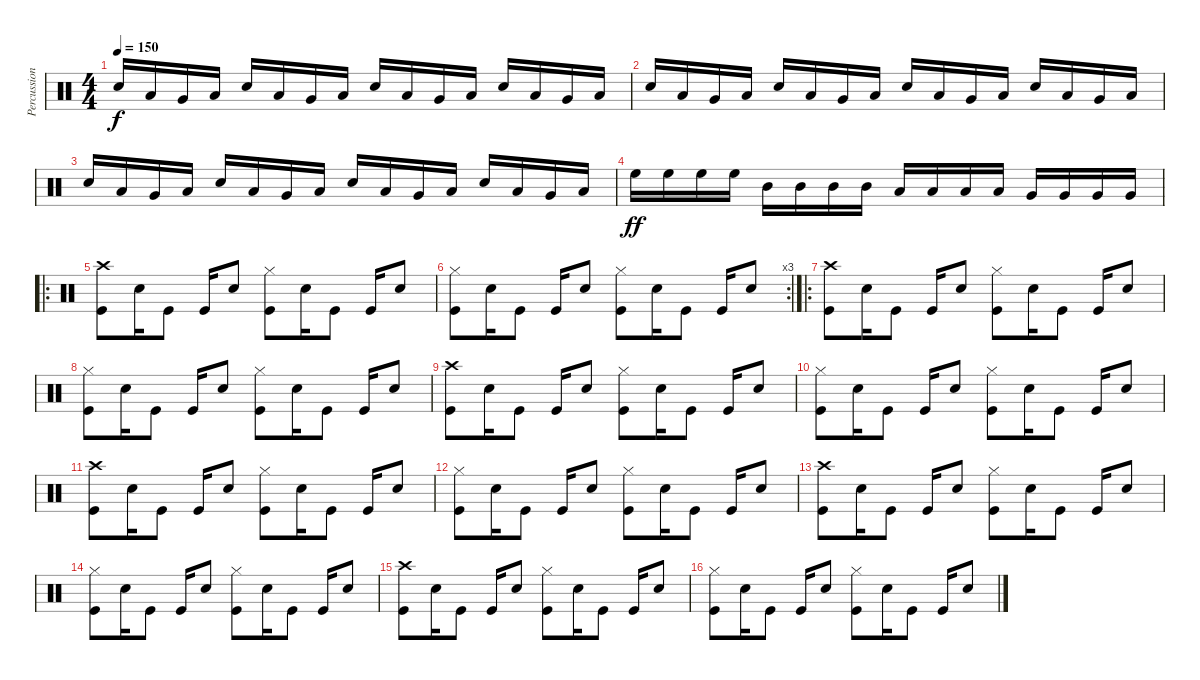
\track ("Percussions" "Percussion") {instrument percussion}
\staff {score}
\articulation defaults
\ts (4 4)
\tempo 150
\clef neutral
\ks c "Snare (hit) 2".16{dy f} "Low Tom (hit)".16 "Very Low Tom (hit)".16 "Low Tom (hit)".16 "Snare (hit) 2".16 "Low Tom (hit)".16 "Very Low Tom (hit)".16 "Low Tom (hit)".16 "Snare (hit) 2".16 "Low Tom (hit)".16 "Very Low Tom (hit)".16 "Low Tom (hit)".16 "Snare (hit) 2".16 "Low Tom (hit)".16 "Very Low Tom (hit)".16 "Low Tom (hit)".16
|
"Snare (hit) 2".16 "Low Tom (hit)".16 "Very Low Tom (hit)".16 "Low Tom (hit)".16 "Snare (hit) 2".16 "Low Tom (hit)".16 "Very Low Tom (hit)".16 "Low Tom (hit)".16 "Snare (hit) 2".16 "Low Tom (hit)".16 "Very Low Tom (hit)".16 "Low Tom (hit)".16 "Snare (hit) 2".16 "Low Tom (hit)".16 "Very Low Tom (hit)".16 "Low Tom (hit)".16 |
"Snare (hit) 2".16 "Low Tom (hit)".16 "Very Low Tom (hit)".16 "Low Tom (hit)".16 "Snare (hit) 2".16 "Low Tom (hit)".16 "Very Low Tom (hit)".16 "Low Tom (hit)".16 "Snare (hit) 2".16 "Low Tom (hit)".16 "Very Low Tom (hit)".16 "Low Tom (hit)".16 "Snare (hit) 2".16 "Low Tom (hit)".16 "Very Low Tom (hit)".16 "Low Tom (hit)".16 |
"High Floor Tom (hit)".16{dy ff} "High Floor Tom (hit)".16 "High Floor Tom (hit)".16 "High Floor Tom (hit)".16 "Mid Tom (hit)".16 "Mid Tom (hit)".16 "Mid Tom (hit)".16 "Mid Tom (hit)".16 "Low Tom (hit)".16 "Low Tom (hit)".16 "Low Tom (hit)".16 "Low Tom (hit)".16 "Very Low Tom (hit)".16 "Very Low Tom (hit)".16 "Very Low Tom (hit)".16 "Very Low Tom (hit)".16 |
\ro
("Crash high (hit)" "Kick (hit)").8 "Snare (hit) 2".16 "Kick (hit)".8 "Kick (hit)".16 "Snare (hit) 2".8 ("Hi-Hat (closed)" "Kick (hit)").8 "Snare (hit) 2".16 "Kick (hit)".8 "Kick (hit)".16 "Snare (hit) 2".8 |
\rc 3
("Hi-Hat (closed)" "Kick (hit)").8 "Snare (hit) 2".16 "Kick (hit)".8 "Kick (hit)".16 "Snare (hit) 2".8 ("Hi-Hat (closed)" "Kick (hit)").8 "Snare (hit) 2".16 "Kick (hit)".8 "Kick (hit)".16 "Snare (hit) 2".8 |
\ro
("Crash high (hit)" "Kick (hit)").8 "Snare (hit) 2".16 "Kick (hit)".8 "Kick (hit)".16 "Snare (hit) 2".8 ("Hi-Hat (closed)" "Kick (hit)").8 "Snare (hit) 2".16 "Kick (hit)".8 "Kick (hit)".16 "Snare (hit) 2".8 |
("Hi-Hat (closed)" "Kick (hit)").8 "Snare (hit) 2".16 "Kick (hit)".8 "Kick (hit)".16 "Snare (hit) 2".8 ("Hi-Hat (closed)" "Kick (hit)").8 "Snare (hit) 2".16 "Kick (hit)".8 "Kick (hit)".16 "Snare (hit) 2".8 |
("Crash high (hit)" "Kick (hit)").8 "Snare (hit) 2".16 "Kick (hit)".8 "Kick (hit)".16 "Snare (hit) 2".8 ("Hi-Hat (closed)" "Kick (hit)").8 "Snare (hit) 2".16 "Kick (hit)".8 "Kick (hit)".16 "Snare (hit) 2".8 |
("Hi-Hat (closed)" "Kick (hit)").8 "Snare (hit) 2".16 "Kick (hit)".8 "Kick (hit)".16 "Snare (hit) 2".8 ("Hi-Hat (closed)" "Kick (hit)").8 "Snare (hit) 2".16 "Kick (hit)".8 "Kick (hit)".16 "Snare (hit) 2".8 |
("Crash high (hit)" "Kick (hit)").8 "Snare (hit) 2".16 "Kick (hit)".8 "Kick (hit)".16 "Snare (hit) 2".8 ("Hi-Hat (closed)" "Kick (hit)").8 "Snare (hit) 2".16 "Kick (hit)".8 "Kick (hit)".16 "Snare (hit) 2".8 |
("Hi-Hat (closed)" "Kick (hit)").8 "Snare (hit) 2".16 "Kick (hit)".8 "Kick (hit)".16 "Snare (hit) 2".8 ("Hi-Hat (closed)" "Kick (hit)").8 "Snare (hit) 2".16 "Kick (hit)".8 "Kick (hit)".16 "Snare (hit) 2".8 |
("Crash high (hit)" "Kick (hit)").8 "Snare (hit) 2".16 "Kick (hit)".8 "Kick (hit)".16 "Snare (hit) 2".8 ("Hi-Hat (closed)" "Kick (hit)").8 "Snare (hit) 2".16 "Kick (hit)".8 "Kick (hit)".16 "Snare (hit) 2".8 |
("Hi-Hat (closed)" "Kick (hit)").8 "Snare (hit) 2".16 "Kick (hit)".8 "Kick (hit)".16 "Snare (hit) 2".8 ("Hi-Hat (closed)" "Kick (hit)").8 "Snare (hit) 2".16 "Kick (hit)".8 "Kick (hit)".16 "Snare (hit) 2".8 |
("Crash high (hit)" "Kick (hit)").8 "Snare (hit) 2".16 "Kick (hit)".8 "Kick (hit)".16 "Snare (hit) 2".8 ("Hi-Hat (closed)" "Kick (hit)").8 "Snare (hit) 2".16 "Kick (hit)".8 "Kick (hit)".16 "Snare (hit) 2".8 |
("Hi-Hat (closed)" "Kick (hit)").8 "Snare (hit) 2".16 "Kick (hit)".8 "Kick (hit)".16 "Snare (hit) 2".8 ("Hi-Hat (closed)" "Kick (hit)").8 "Snare (hit) 2".16 "Kick (hit)".8 "Kick (hit)".16 "Snare (hit) 2".8
